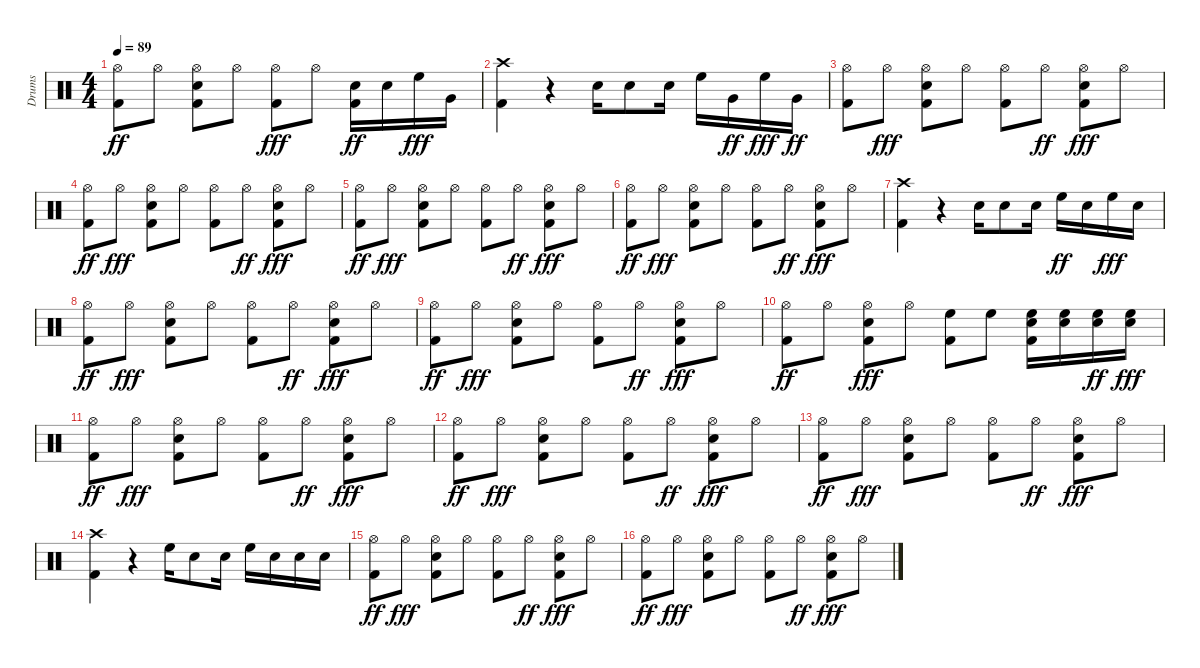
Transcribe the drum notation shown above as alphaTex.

\track ("Drums" "Drums") {instrument percussion}
\staff {score}
\articulation defaults
\ts (4 4)
\tempo 89
\clef neutral
\ks c
("Kick (hit) 2" "Hi-Hat (open)").8{dy ff} "Hi-Hat (open)".8 ("Kick (hit) 2" "Snare (hit) 2" "Hi-Hat (open)").8 "Hi-Hat (open)".8 ("Kick (hit) 2" "Hi-Hat (open)").8{dy fff} "Hi-Hat (open)".8 ("Kick (hit) 2" "Snare (hit) 2").16{dy ff} "Snare (hit) 2".16 "High Floor Tom (hit)".16{dy fff} "Very Low Tom (hit)".16 |
("Kick (hit) 2" "Crash high (hit)").4 r.4 "Snare (hit) 2".16 "Snare (hit) 2".8 "Snare (hit) 2".16 "High Floor Tom (hit)".16 "Very Low Tom (hit)".16{dy ff} "High Floor Tom (hit)".16{dy fff} "Very Low Tom (hit)".16{dy ff} |
("Kick (hit) 2" "Hi-Hat (open)").8 "Hi-Hat (open)".8{dy fff} ("Kick (hit) 2" "Snare (hit) 2" "Hi-Hat (open)").8 "Hi-Hat (open)".8 ("Kick (hit) 2" "Hi-Hat (open)").8 "Hi-Hat (open)".8{dy ff} ("Kick (hit) 2" "Hi-Hat (open)" "Snare (hit) 2").8{dy fff} "Hi-Hat (open)".8 |
("Kick (hit) 2" "Hi-Hat (open)").8{dy ff} "Hi-Hat (open)".8{dy fff} ("Kick (hit) 2" "Snare (hit) 2" "Hi-Hat (open)").8 "Hi-Hat (open)".8 ("Kick (hit) 2" "Hi-Hat (open)").8 "Hi-Hat (open)".8{dy ff} ("Kick (hit) 2" "Hi-Hat (open)" "Snare (hit) 2").8{dy fff} "Hi-Hat (open)".8 |
("Kick (hit) 2" "Hi-Hat (open)").8{dy ff} "Hi-Hat (open)".8{dy fff} ("Kick (hit) 2" "Snare (hit) 2" "Hi-Hat (open)").8 "Hi-Hat (open)".8 ("Kick (hit) 2" "Hi-Hat (open)").8 "Hi-Hat (open)".8{dy ff} ("Kick (hit) 2" "Hi-Hat (open)" "Snare (hit) 2").8{dy fff} "Hi-Hat (open)".8 |
("Kick (hit) 2" "Hi-Hat (open)").8{dy ff} "Hi-Hat (open)".8{dy fff} ("Kick (hit) 2" "Snare (hit) 2" "Hi-Hat (open)").8 "Hi-Hat (open)".8 ("Kick (hit) 2" "Hi-Hat (open)").8 "Hi-Hat (open)".8{dy ff} ("Kick (hit) 2" "Hi-Hat (open)" "Snare (hit) 2").8{dy fff} "Hi-Hat (open)".8 |
("Crash high (hit)" "Kick (hit) 2").4 r.4 "Snare (hit) 2".16 "Snare (hit) 2".8 "Snare (hit) 2".16 "High Floor Tom (hit)".16{dy ff} "Snare (hit) 2".16 "High Floor Tom (hit)".16{dy fff} "Snare (hit) 2".16 |
("Kick (hit) 2" "Hi-Hat (open)").8{dy ff} "Hi-Hat (open)".8{dy fff} ("Kick (hit) 2" "Snare (hit) 2" "Hi-Hat (open)").8 "Hi-Hat (open)".8 ("Kick (hit) 2" "Hi-Hat (open)").8 "Hi-Hat (open)".8{dy ff} ("Kick (hit) 2" "Hi-Hat (open)" "Snare (hit) 2").8{dy fff} "Hi-Hat (open)".8 |
("Kick (hit) 2" "Hi-Hat (open)").8{dy ff} "Hi-Hat (open)".8{dy fff} ("Kick (hit) 2" "Snare (hit) 2" "Hi-Hat (open)").8 "Hi-Hat (open)".8 ("Kick (hit) 2" "Hi-Hat (open)").8 "Hi-Hat (open)".8{dy ff} ("Kick (hit) 2" "Hi-Hat (open)" "Snare (hit) 2").8{dy fff} "Hi-Hat (open)".8 |
("Kick (hit) 2" "Hi-Hat (open)").8{dy ff} "Hi-Hat (open)".8 ("Kick (hit) 2" "Snare (hit) 2" "Hi-Hat (open)").8{dy fff} "Hi-Hat (open)".8 ("Kick (hit) 2" "High Floor Tom (hit)").8 "High Floor Tom (hit)".8 ("Kick (hit) 2" "High Floor Tom (hit)" "Snare (hit) 2").16 ("High Floor Tom (hit)" "Snare (hit) 2").16 ("Snare (hit) 2" "High Floor Tom (hit)").16{dy ff} ("High Floor Tom (hit)" "Snare (hit) 2").16{dy fff} |
("Kick (hit) 2" "Hi-Hat (open)").8{dy ff} "Hi-Hat (open)".8{dy fff} ("Kick (hit) 2" "Snare (hit) 2" "Hi-Hat (open)").8 "Hi-Hat (open)".8 ("Kick (hit) 2" "Hi-Hat (open)").8 "Hi-Hat (open)".8{dy ff} ("Kick (hit) 2" "Hi-Hat (open)" "Snare (hit) 2").8{dy fff} "Hi-Hat (open)".8 |
("Kick (hit) 2" "Hi-Hat (open)").8{dy ff} "Hi-Hat (open)".8{dy fff} ("Kick (hit) 2" "Snare (hit) 2" "Hi-Hat (open)").8 "Hi-Hat (open)".8 ("Kick (hit) 2" "Hi-Hat (open)").8 "Hi-Hat (open)".8{dy ff} ("Kick (hit) 2" "Hi-Hat (open)" "Snare (hit) 2").8{dy fff} "Hi-Hat (open)".8 |
("Kick (hit) 2" "Hi-Hat (open)").8{dy ff} "Hi-Hat (open)".8{dy fff} ("Kick (hit) 2" "Snare (hit) 2" "Hi-Hat (open)").8 "Hi-Hat (open)".8 ("Kick (hit) 2" "Hi-Hat (open)").8 "Hi-Hat (open)".8{dy ff} ("Kick (hit) 2" "Hi-Hat (open)" "Snare (hit) 2").8{dy fff} "Hi-Hat (open)".8 |
("Crash high (hit)" "Kick (hit) 2").4 r.4 "High Floor Tom (hit)".16 "Snare (hit) 2".8 "Snare (hit) 2".16 "High Floor Tom (hit)".16 "Snare (hit) 2".16 "Snare (hit) 2".16 "Snare (hit) 2".16 |
("Kick (hit) 2" "Hi-Hat (open)").8{dy ff} "Hi-Hat (open)".8{dy fff} ("Kick (hit) 2" "Snare (hit) 2" "Hi-Hat (open)").8 "Hi-Hat (open)".8 ("Kick (hit) 2" "Hi-Hat (open)").8 "Hi-Hat (open)".8{dy ff} ("Kick (hit) 2" "Hi-Hat (open)" "Snare (hit) 2").8{dy fff} "Hi-Hat (open)".8 |
("Kick (hit) 2" "Hi-Hat (open)").8{dy ff} "Hi-Hat (open)".8{dy fff} ("Kick (hit) 2" "Snare (hit) 2" "Hi-Hat (open)").8 "Hi-Hat (open)".8 ("Kick (hit) 2" "Hi-Hat (open)").8 "Hi-Hat (open)".8{dy ff} ("Kick (hit) 2" "Hi-Hat (open)" "Snare (hit) 2").8{dy fff} "Hi-Hat (open)".8
